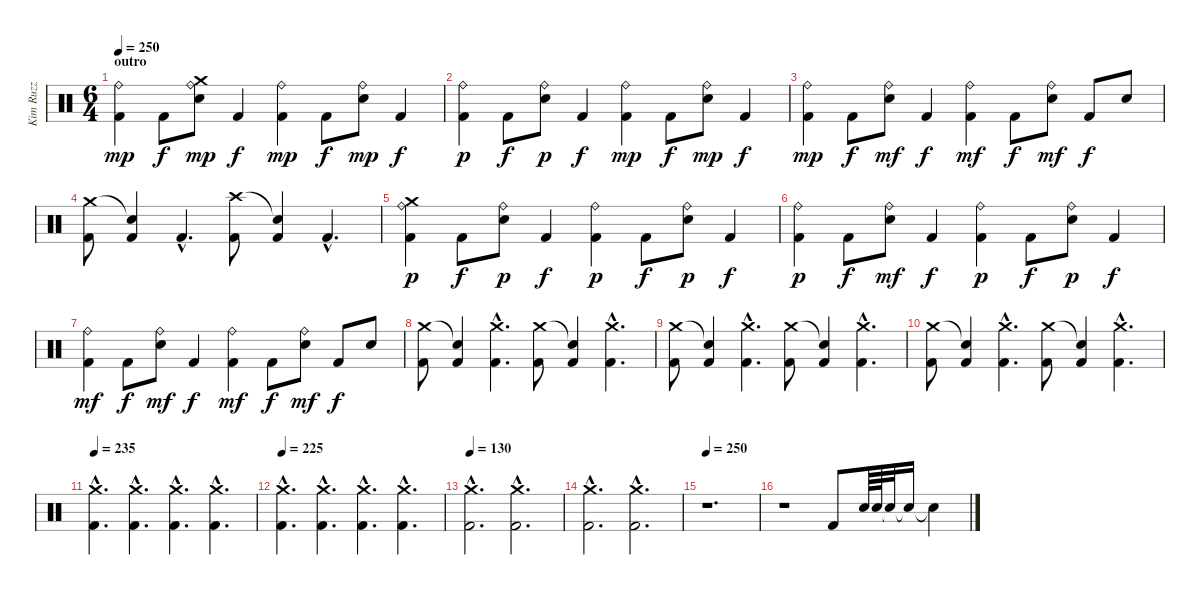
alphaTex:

\track ("Kim Ruzz" "Kim Ruzz") {instrument percussion}
\staff {score}
\articulation defaults
\ts (6 4)
\section ("" "outro")
\tempo 250
\clef neutral
\ks c
("Kick (hit) 2" "Ride (bell)").4{dy mp} "Kick (hit) 2".8{dy f} ("Ride (bell)" "Snare (hit) 2" "Crash medium (hit)").8{dy mp} "Kick (hit) 2".4{dy f} ("Kick (hit) 2" "Ride (bell)").4{dy mp} "Kick (hit) 2".8{dy f} ("Ride (bell)" "Snare (hit) 2").8{dy mp} "Kick (hit) 2".4{dy f} |
("Kick (hit) 2" "Ride (bell)").4{dy p} "Kick (hit) 2".8{dy f} ("Ride (bell)" "Snare (hit) 2").8{dy p} "Kick (hit) 2".4{dy f} ("Kick (hit) 2" "Ride (bell)").4{dy mp} "Kick (hit) 2".8{dy f} ("Ride (bell)" "Snare (hit) 2").8{dy mp} "Kick (hit) 2".4{dy f} |
("Kick (hit) 2" "Ride (bell)").4{dy mp} "Kick (hit) 2".8{dy f} ("Ride (bell)" "Snare (hit) 2").8{dy mf} "Kick (hit) 2".4{dy f} ("Kick (hit) 2" "Ride (bell)").4{dy mf} "Kick (hit) 2".8{dy f} ("Ride (bell)" "Snare (hit) 2").8{dy mf} "Kick (hit) 2".8{dy f} "Snare (hit) 2".8 |
("Kick (hit) 2" "Crash medium (hit)").8 ("Kick (hit) 2" "Snare (hit)"{t}).4 "Kick (hit) 2"{hac}.4{d} ("Kick (hit) 2" "Crash high (hit)").8 ("Kick (hit) 2" "Snare (hit)"{t}).4 "Kick (hit) 2"{hac}.4{d} |
("Kick (hit) 2" "Ride (bell)" "Crash medium (hit)").4{dy p} "Kick (hit) 2".8{dy f} ("Ride (bell)" "Snare (hit) 2").8{dy p} "Kick (hit) 2".4{dy f} ("Kick (hit) 2" "Ride (bell)").4{dy p} "Kick (hit) 2".8{dy f} ("Ride (bell)" "Snare (hit) 2").8{dy p} "Kick (hit) 2".4{dy f} |
("Kick (hit) 2" "Ride (bell)").4{dy p} "Kick (hit) 2".8{dy f} ("Ride (bell)" "Snare (hit) 2").8{dy mf} "Kick (hit) 2".4{dy f} ("Kick (hit) 2" "Ride (bell)").4{dy p} "Kick (hit) 2".8{dy f} ("Ride (bell)" "Snare (hit) 2").8{dy p} "Kick (hit) 2".4{dy f} |
("Kick (hit) 2" "Ride (bell)").4{dy mf} "Kick (hit) 2".8{dy f} ("Ride (bell)" "Snare (hit) 2").8{dy mf} "Kick (hit) 2".4{dy f} ("Kick (hit) 2" "Ride (bell)").4{dy mf} "Kick (hit) 2".8{dy f} ("Ride (bell)" "Snare (hit) 2").8{dy mf} "Kick (hit) 2".8{dy f} "Snare (hit) 2".8 |
("Kick (hit) 2" "Crash medium (hit)").8 ("Kick (hit) 2" "Snare (hit)"{t}).4 ("Kick (hit) 2"{hac} "Crash medium (hit)"{hac}).4{d} ("Kick (hit) 2" "Crash medium (hit)").8 ("Kick (hit) 2" "Snare (hit)"{t}).4 ("Kick (hit) 2"{hac} "Crash medium (hit)"{hac}).4{d} |
("Kick (hit) 2" "Crash medium (hit)").8 ("Kick (hit) 2" "Snare (hit)"{t}).4 ("Kick (hit) 2"{hac} "Crash medium (hit)"{hac}).4{d} ("Kick (hit) 2" "Crash medium (hit)").8 ("Kick (hit) 2" "Snare (hit)"{t}).4 ("Kick (hit) 2"{hac} "Crash medium (hit)"{hac}).4{d} |
("Kick (hit) 2" "Crash medium (hit)").8 ("Kick (hit) 2" "Snare (hit)"{t}).4 ("Kick (hit) 2"{hac} "Crash medium (hit)"{hac}).4{d} ("Kick (hit) 2" "Crash medium (hit)").8 ("Kick (hit) 2" "Snare (hit)"{t}).4 ("Kick (hit) 2"{hac} "Crash medium (hit)"{hac}).4{d} |
\tempo 235
("Kick (hit) 2"{hac} "Crash medium (hit)"{hac}).4{d} ("Kick (hit) 2"{hac} "Crash medium (hit)"{hac}).4{d} ("Kick (hit) 2"{hac} "Crash medium (hit)"{hac}).4{d} ("Kick (hit) 2"{hac} "Crash medium (hit)"{hac}).4{d} |
\tempo 225
("Kick (hit) 2"{hac} "Crash medium (hit)"{hac}).4{d} ("Kick (hit) 2"{hac} "Crash medium (hit)"{hac}).4{d} ("Kick (hit) 2"{hac} "Crash medium (hit)"{hac}).4{d} ("Kick (hit) 2"{hac} "Crash medium (hit)"{hac}).4{d} |
\tempo 160
\tempo 130
("Kick (hit) 2"{hac} "Crash medium (hit)"{hac}).2{d} ("Kick (hit) 2"{hac} "Crash medium (hit)"{hac}).2{d} |
("Kick (hit) 2"{hac} "Crash medium (hit)"{hac}).2{d} ("Kick (hit) 2"{hac} "Crash medium (hit)"{hac}).2{d} |
\tempo 250
r.1{d} |
r.1 "Kick (hit) 2".8 "Snare (hit) 2".64 "Snare (hit) 2".64 "Snare (hit)"{t}.32 "Snare (hit)"{t}.16 "Snare (hit)"{t}.4
